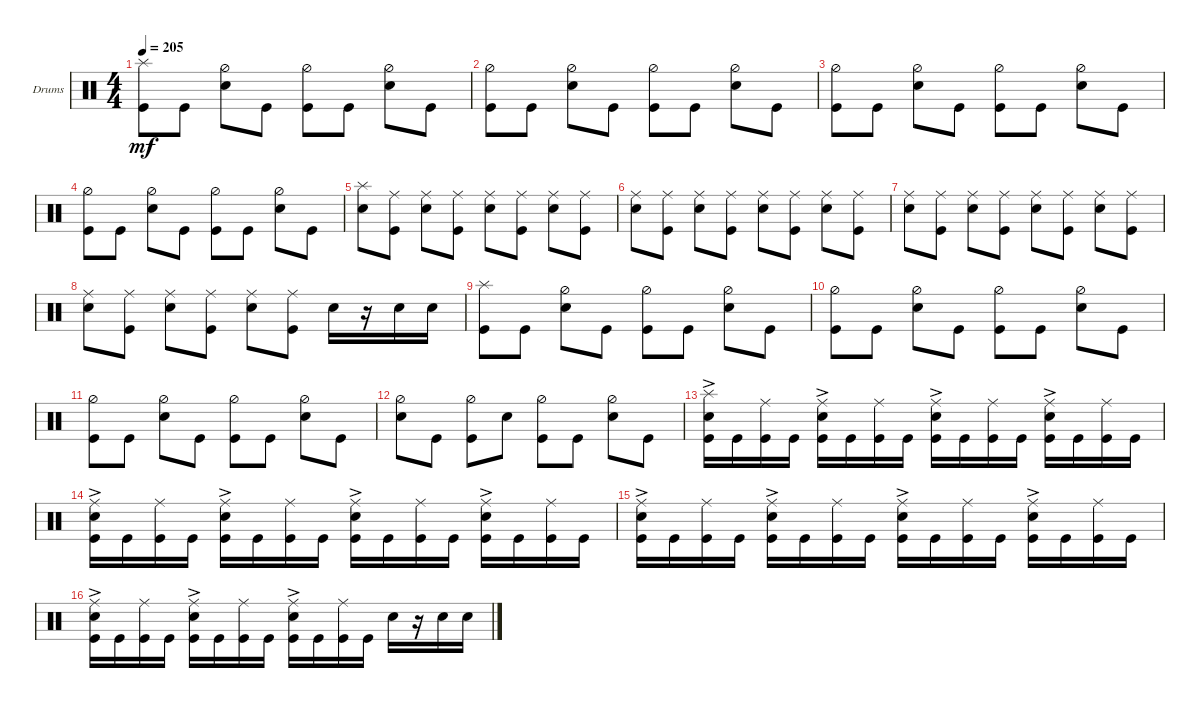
\bracketExtendMode groupsimilarinstruments
\firstSystemTrackNameOrientation horizontal
\otherSystemsTrackNameOrientation horizontal
\track ("Drumkit" "Drums") {instrument percussion}
\staff {score}
\articulation defaults
\ts (4 4)
\tempo 205
\clef neutral
\ks c
("Kick (hit)" "Splash (hit)").8{dy mf} "Kick (hit)".8 ("Snare (hit) 2" "Hi-Hat (half)").8 "Kick (hit)".8 ("Kick (hit)" "Hi-Hat (half)").8 "Kick (hit)".8 ("Snare (hit) 2" "Hi-Hat (half)").8 "Kick (hit)".8 |
("Kick (hit)" "Hi-Hat (half)").8 "Kick (hit)".8 ("Snare (hit) 2" "Hi-Hat (half)").8 "Kick (hit)".8 ("Kick (hit)" "Hi-Hat (half)").8 "Kick (hit)".8 ("Snare (hit) 2" "Hi-Hat (half)").8 "Kick (hit)".8 |
("Kick (hit)" "Hi-Hat (half)").8 "Kick (hit)".8 ("Snare (hit) 2" "Hi-Hat (half)").8 "Kick (hit)".8 ("Kick (hit)" "Hi-Hat (half)").8 "Kick (hit)".8 ("Snare (hit) 2" "Hi-Hat (half)").8 "Kick (hit)".8 |
("Kick (hit)" "Hi-Hat (half)").8 "Kick (hit)".8 ("Snare (hit) 2" "Hi-Hat (half)").8 "Kick (hit)".8 ("Kick (hit)" "Hi-Hat (half)").8 "Kick (hit)".8 ("Snare (hit) 2" "Hi-Hat (half)").8 "Kick (hit)".8 |
("Snare (hit) 2" "Splash (hit)").8 ("Kick (hit)" "Ride (middle)").8 ("Snare (hit) 2" "Ride (middle)").8 ("Kick (hit)" "Ride (middle)").8 ("Snare (hit) 2" "Ride (middle)").8 ("Kick (hit)" "Ride (middle)").8 ("Snare (hit) 2" "Ride (middle)").8 ("Kick (hit)" "Ride (middle)").8 |
("Snare (hit) 2" "Ride (middle)").8 ("Kick (hit)" "Ride (middle)").8 ("Snare (hit) 2" "Ride (middle)").8 ("Kick (hit)" "Ride (middle)").8 ("Snare (hit) 2" "Ride (middle)").8 ("Kick (hit)" "Ride (middle)").8 ("Snare (hit) 2" "Ride (middle)").8 ("Kick (hit)" "Ride (middle)").8 |
("Snare (hit) 2" "Ride (middle)").8 ("Kick (hit)" "Ride (middle)").8 ("Snare (hit) 2" "Ride (middle)").8 ("Kick (hit)" "Ride (middle)").8 ("Snare (hit) 2" "Ride (middle)").8 ("Kick (hit)" "Ride (middle)").8 ("Snare (hit) 2" "Ride (middle)").8 ("Kick (hit)" "Ride (middle)").8 |
("Snare (hit) 2" "Ride (middle)").8 ("Kick (hit)" "Ride (middle)").8 ("Snare (hit) 2" "Ride (middle)").8 ("Kick (hit)" "Ride (middle)").8 ("Snare (hit) 2" "Ride (middle)").8 ("Kick (hit)" "Ride (middle)").8 "Snare (hit) 2".16 r.16 "Snare (hit) 2".16 "Snare (hit) 2".16 |
("Kick (hit)" "Splash (hit)").8 "Kick (hit)".8 ("Snare (hit) 2" "Hi-Hat (half)").8 "Kick (hit)".8 ("Kick (hit)" "Hi-Hat (half)").8 "Kick (hit)".8 ("Snare (hit) 2" "Hi-Hat (half)").8 "Kick (hit)".8 |
("Kick (hit)" "Hi-Hat (half)").8 "Kick (hit)".8 ("Snare (hit) 2" "Hi-Hat (half)").8 "Kick (hit)".8 ("Kick (hit)" "Hi-Hat (half)").8 "Kick (hit)".8 ("Snare (hit) 2" "Hi-Hat (half)").8 "Kick (hit)".8 |
("Kick (hit)" "Hi-Hat (half)").8 "Kick (hit)".8 ("Snare (hit) 2" "Hi-Hat (half)").8 "Kick (hit)".8 ("Kick (hit)" "Hi-Hat (half)").8 "Kick (hit)".8 ("Snare (hit) 2" "Hi-Hat (half)").8 "Kick (hit)".8 |
("Snare (hit) 2" "Hi-Hat (half)").8 "Kick (hit)".8 ("Kick (hit)" "Hi-Hat (half)").8 "Snare (hit) 2".8 ("Kick (hit)" "Hi-Hat (half)").8 "Kick (hit)".8 ("Snare (hit) 2" "Hi-Hat (half)").8 "Kick (hit)".8 |
("Snare (hit) 2"{ac} "Kick (hit)" "Splash (hit)").16 "Kick (hit)".16 ("Kick (hit)" "Ride (middle)").16 "Kick (hit)".16 ("Snare (hit) 2"{ac} "Kick (hit)" "Ride (middle)").16 "Kick (hit)".16 ("Kick (hit)" "Ride (middle)").16 "Kick (hit)".16 ("Snare (hit) 2"{ac} "Kick (hit)" "Ride (middle)").16 "Kick (hit)".16 ("Kick (hit)" "Ride (middle)").16 "Kick (hit)".16 ("Snare (hit) 2"{ac} "Kick (hit)" "Ride (middle)").16 "Kick (hit)".16 ("Kick (hit)" "Ride (middle)").16 "Kick (hit)".16 |
("Snare (hit) 2"{ac} "Kick (hit)" "Ride (middle)").16 "Kick (hit)".16 ("Kick (hit)" "Ride (middle)").16 "Kick (hit)".16 ("Snare (hit) 2"{ac} "Kick (hit)" "Ride (middle)").16 "Kick (hit)".16 ("Kick (hit)" "Ride (middle)").16 "Kick (hit)".16 ("Snare (hit) 2"{ac} "Kick (hit)" "Ride (middle)").16 "Kick (hit)".16 ("Kick (hit)" "Ride (middle)").16 "Kick (hit)".16 ("Snare (hit) 2"{ac} "Kick (hit)" "Ride (middle)").16 "Kick (hit)".16 ("Kick (hit)" "Ride (middle)").16 "Kick (hit)".16 |
("Snare (hit) 2"{ac} "Kick (hit)" "Ride (middle)").16 "Kick (hit)".16 ("Kick (hit)" "Ride (middle)").16 "Kick (hit)".16 ("Snare (hit) 2"{ac} "Kick (hit)" "Ride (middle)").16 "Kick (hit)".16 ("Kick (hit)" "Ride (middle)").16 "Kick (hit)".16 ("Snare (hit) 2"{ac} "Kick (hit)" "Ride (middle)").16 "Kick (hit)".16 ("Kick (hit)" "Ride (middle)").16 "Kick (hit)".16 ("Snare (hit) 2"{ac} "Kick (hit)" "Ride (middle)").16 "Kick (hit)".16 ("Kick (hit)" "Ride (middle)").16 "Kick (hit)".16 |
("Snare (hit) 2"{ac} "Kick (hit)" "Ride (middle)").16 "Kick (hit)".16 ("Kick (hit)" "Ride (middle)").16 "Kick (hit)".16 ("Snare (hit) 2"{ac} "Kick (hit)" "Ride (middle)").16 "Kick (hit)".16 ("Kick (hit)" "Ride (middle)").16 "Kick (hit)".16 ("Snare (hit) 2"{ac} "Kick (hit)" "Ride (middle)").16 "Kick (hit)".16 ("Kick (hit)" "Ride (middle)").16 "Kick (hit)".16 "Snare (hit) 2".16 r.16 "Snare (hit) 2".16 "Snare (hit) 2".16
